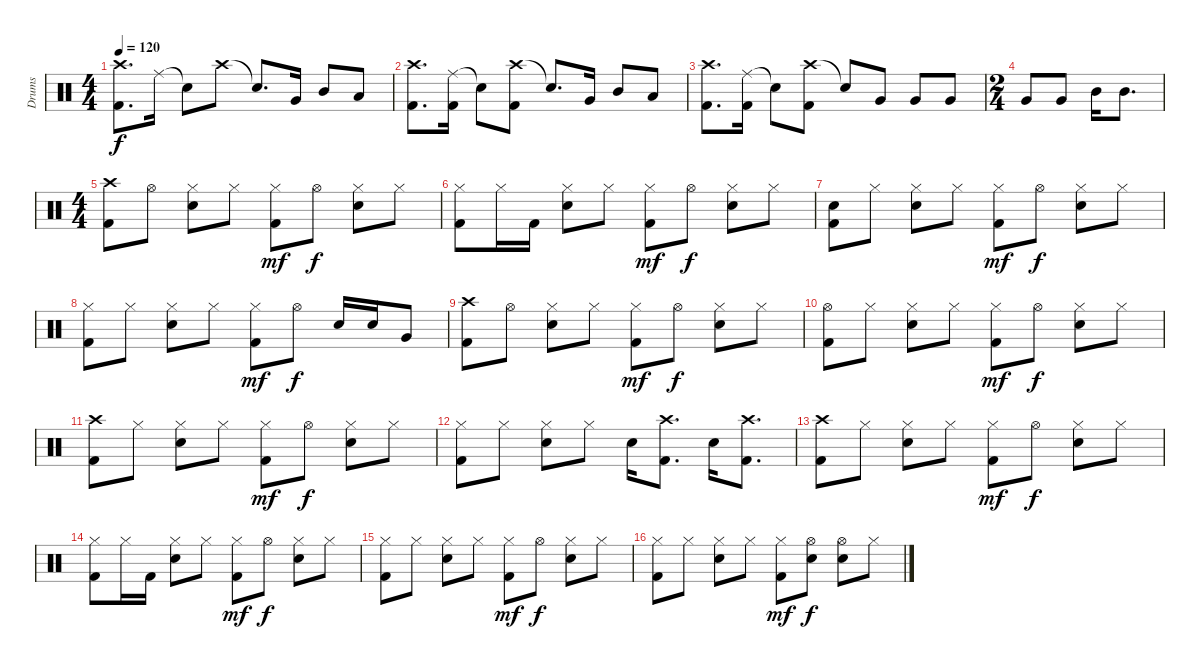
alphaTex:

\track ("Drums" "Drums") {instrument percussion}
\staff {score}
\articulation defaults
\ts (4 4)
\tempo 120
\clef neutral
\ks c
("Crash high (hit)" "Kick (hit) 2").8{d dy f} "Ride (middle)".16 "Snare (hit)"{t}.8 "Crash high (hit)".8 "Snare (hit)"{t}.8{d} "Very Low Tom (hit)".16 "Mid Tom (hit)".8 "Low Tom (hit)".8 |
("Crash high (hit)" "Kick (hit) 2").8{d} ("Ride (middle)" "Kick (hit) 2").16 "Snare (hit)"{t}.8 ("Crash high (hit)" "Kick (hit) 2").8 "Snare (hit)"{t}.8{d} "Very Low Tom (hit)".16 "Mid Tom (hit)".8 "Low Tom (hit)".8 |
("Crash high (hit)" "Kick (hit) 2").8{d} ("Ride (middle)" "Kick (hit) 2").16 "Snare (hit)"{t}.8 ("Crash high (hit)" "Kick (hit) 2").8 "Snare (hit)"{t}.8 "Very Low Tom (hit)".8 "Very Low Tom (hit)".8 "Very Low Tom (hit)".8 |
\ts (2 4)
"Very Low Tom (hit)".8 "Very Low Tom (hit)".8 "Mid Tom (hit)".16 "Mid Tom (hit)".8{d} |
\ts (4 4)
("Crash high (hit)" "Kick (hit) 2").8 "Hi-Hat (open)".8 ("Hi-Hat (closed)" "Snare (hit) 2").8 "Hi-Hat (closed)".8 ("Hi-Hat (closed)" "Kick (hit) 2").8{dy mf} "Hi-Hat (open)".8{dy f} ("Hi-Hat (closed)" "Snare (hit) 2").8 "Hi-Hat (closed)".8 |
("Hi-Hat (closed)" "Kick (hit) 2").8 "Hi-Hat (closed)".16 "Kick (hit) 2".16 ("Hi-Hat (closed)" "Snare (hit) 2").8 "Hi-Hat (closed)".8 ("Hi-Hat (closed)" "Kick (hit) 2").8{dy mf} "Hi-Hat (open)".8{dy f} ("Hi-Hat (closed)" "Snare (hit) 2").8 "Hi-Hat (closed)".8 |
("Electric Snare (hit)" "Kick (hit) 2").8 "Hi-Hat (closed)".8 ("Hi-Hat (closed)" "Snare (hit) 2").8 "Hi-Hat (closed)".8 ("Hi-Hat (closed)" "Kick (hit) 2").8{dy mf} "Hi-Hat (open)".8{dy f} ("Hi-Hat (closed)" "Snare (hit) 2").8 "Hi-Hat (closed)".8 |
("Hi-Hat (closed)" "Kick (hit) 2").8 "Hi-Hat (closed)".8 ("Hi-Hat (closed)" "Snare (hit) 2").8 "Hi-Hat (closed)".8 ("Hi-Hat (closed)" "Kick (hit) 2").8{dy mf} "Hi-Hat (open)".8{dy f} "Snare (hit) 2".16 "Snare (hit) 2".16 "Very Low Tom (hit)".8 |
("Crash high (hit)" "Kick (hit) 2").8 "Hi-Hat (open)".8 ("Hi-Hat (closed)" "Snare (hit) 2").8 "Hi-Hat (closed)".8 ("Hi-Hat (closed)" "Kick (hit) 2").8{dy mf} "Hi-Hat (open)".8{dy f} ("Hi-Hat (closed)" "Snare (hit) 2").8 "Hi-Hat (closed)".8 |
("Hi-Hat (open)" "Kick (hit) 2").8 "Hi-Hat (closed)".8 ("Hi-Hat (closed)" "Snare (hit) 2").8 "Hi-Hat (closed)".8 ("Hi-Hat (closed)" "Kick (hit) 2").8{dy mf} "Hi-Hat (open)".8{dy f} ("Hi-Hat (closed)" "Snare (hit) 2").8 "Hi-Hat (closed)".8 |
("Crash high (hit)" "Kick (hit) 2").8 "Hi-Hat (closed)".8 ("Hi-Hat (closed)" "Snare (hit) 2").8 "Hi-Hat (closed)".8 ("Hi-Hat (closed)" "Kick (hit) 2").8{dy mf} "Hi-Hat (open)".8{dy f} ("Hi-Hat (closed)" "Snare (hit) 2").8 "Hi-Hat (closed)".8 |
("Hi-Hat (closed)" "Kick (hit) 2").8 "Hi-Hat (closed)".8 ("Hi-Hat (closed)" "Snare (hit) 2").8 "Hi-Hat (closed)".8 "Snare (hit) 2".16 ("Crash high (hit)" "Kick (hit) 2").8{d} "Snare (hit) 2".16 ("Crash high (hit)" "Kick (hit) 2").8{d} |
("Crash high (hit)" "Kick (hit) 2").8 "Hi-Hat (closed)".8 ("Hi-Hat (closed)" "Snare (hit) 2").8 "Hi-Hat (closed)".8 ("Hi-Hat (closed)" "Kick (hit) 2").8{dy mf} "Hi-Hat (open)".8{dy f} ("Hi-Hat (closed)" "Snare (hit) 2").8 "Hi-Hat (closed)".8 |
("Hi-Hat (closed)" "Kick (hit) 2").8 "Hi-Hat (closed)".16 "Kick (hit) 2".16 ("Hi-Hat (closed)" "Snare (hit) 2").8 "Hi-Hat (closed)".8 ("Hi-Hat (closed)" "Kick (hit) 2").8{dy mf} "Hi-Hat (open)".8{dy f} ("Hi-Hat (closed)" "Snare (hit) 2").8 "Hi-Hat (closed)".8 |
("Hi-Hat (closed)" "Kick (hit) 2").8 "Hi-Hat (closed)".8 ("Hi-Hat (closed)" "Snare (hit) 2").8 "Hi-Hat (closed)".8 ("Hi-Hat (closed)" "Kick (hit) 2").8{dy mf} "Hi-Hat (open)".8{dy f} ("Hi-Hat (closed)" "Snare (hit) 2").8 "Hi-Hat (closed)".8 |
("Hi-Hat (closed)" "Kick (hit) 2").8 "Hi-Hat (closed)".8 ("Hi-Hat (closed)" "Snare (hit) 2").8 "Hi-Hat (closed)".8 ("Hi-Hat (closed)" "Kick (hit) 2").8{dy mf} ("Hi-Hat (open)" "Snare (hit) 2").8{dy f} ("Hi-Hat (open)" "Snare (hit) 2").8 "Hi-Hat (closed)".8
